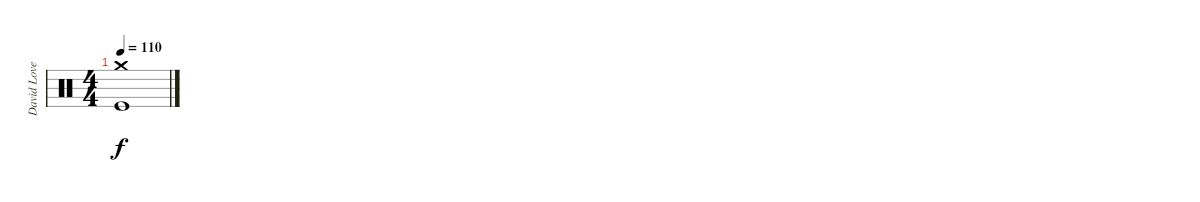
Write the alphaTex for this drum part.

\track ("David Lovering" "David Love") {instrument percussion}
\staff {score}
\articulation defaults
\ts (4 4)
\tempo 110
\clef neutral
\ks c
("Crash medium (hit)" "Kick (hit)").1{dy f}
